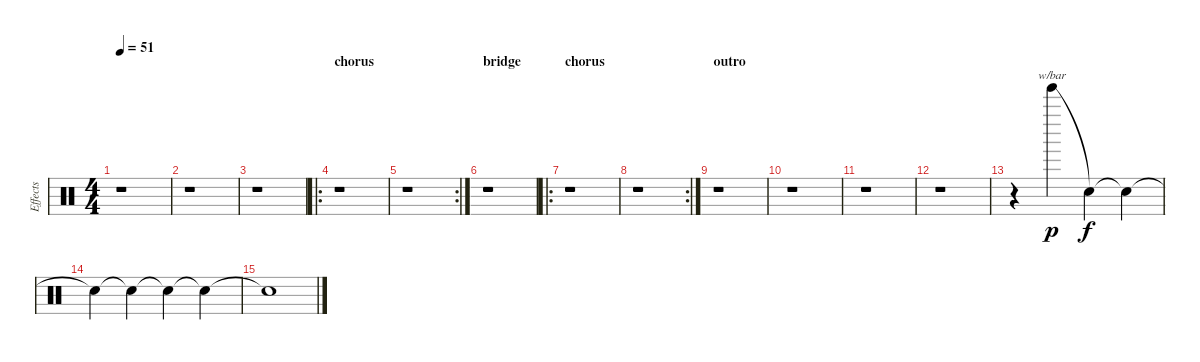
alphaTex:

\track ("Effects" "Effects") {instrument percussion}
\staff {score}
\articulation defaults
\ts (4 4)
\tempo 51
\clef neutral
\ks c
r.1{dy f} |
r.1 |
r.1 |
\ro
\section ("" "chorus")
r.1 |
\rc 2
r.1 |
\section ("" "bridge")
r.1 |
\ro
\section ("" "chorus")
r.1 |
\rc 2
r.1 |
\section ("" "outro")
r.1 |
r.1 |
r.1 |
r.1 |
r.4 "Tinkle Bell (hit)".4{tbe (dive default 0 0 60 4) dy p} "Snare (hit)"{t}.4{dy f balance 14} "Snare (hit)"{t}.4 |
"Snare (hit)"{t}.4{balance 4} "Snare (hit)"{t}.4 "Snare (hit)"{t}.4 "Snare (hit)"{t}.4{balance 8} |
"Snare (hit)"{t}.1
